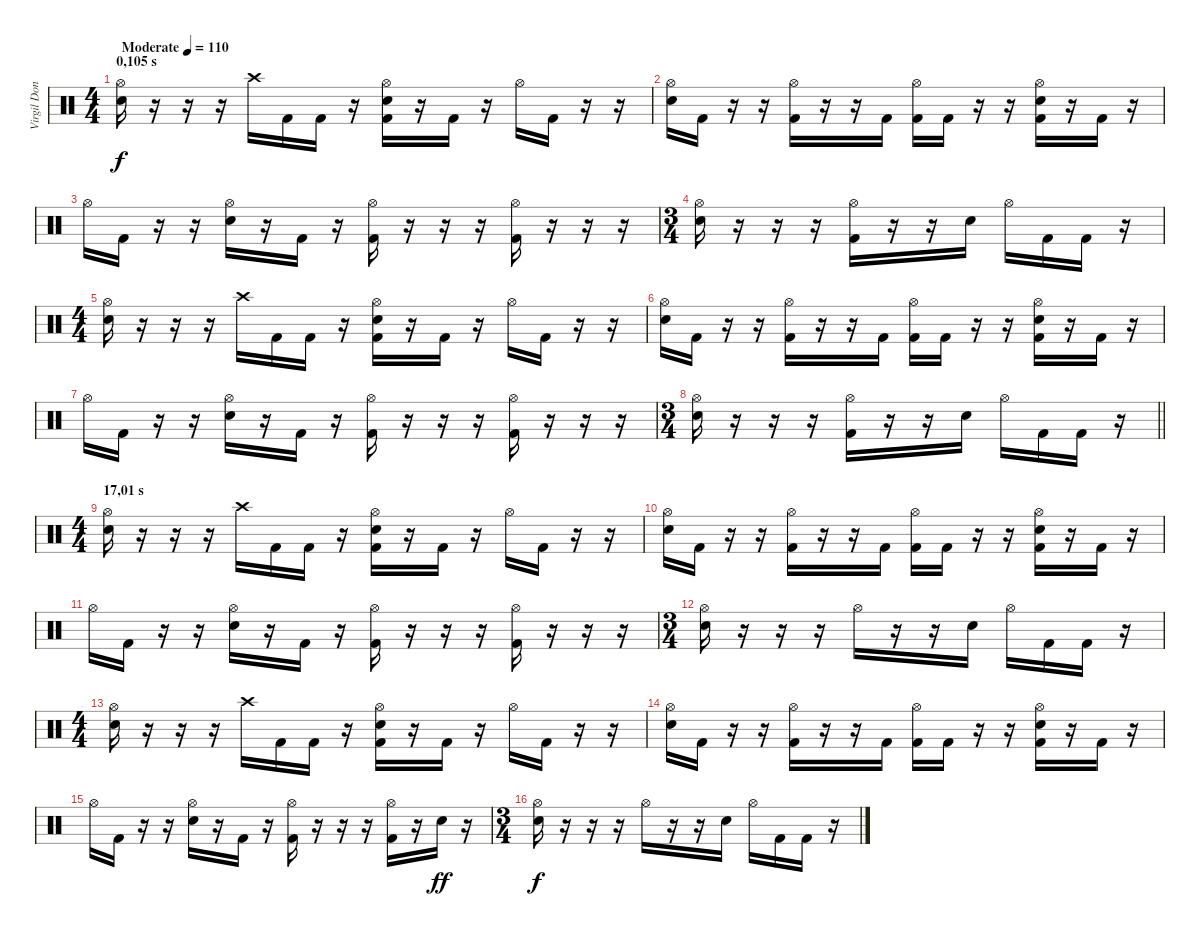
\track ("Virgil Donati" "Virgil Don") {instrument percussion}
\staff {score}
\articulation defaults
\ts (4 4)
\section ("" "0,105 s")
\tempo (110 "Moderate")
\clef neutral
\ks c
("Hi-Hat (open)" "Electric Snare (hit)").16{dy f} r.16 r.16 r.16 "Crash high (hit)".16 "Kick (hit) 2".16 "Kick (hit) 2".16 r.16 ("Hi-Hat (open)" "Electric Snare (hit)" "Kick (hit) 2").16 r.16 "Kick (hit) 2".16 r.16 "Hi-Hat (open)".16 "Kick (hit) 2".16 r.16 r.16 |
("Hi-Hat (open)" "Electric Snare (hit)").16 "Kick (hit) 2".16 r.16 r.16 ("Hi-Hat (open)" "Kick (hit) 2").16 r.16 r.16 "Kick (hit) 2".16 ("Hi-Hat (open)" "Kick (hit) 2").16 "Kick (hit) 2".16 r.16 r.16 ("Hi-Hat (open)" "Electric Snare (hit)" "Kick (hit) 2").16 r.16 "Kick (hit) 2".16 r.16 |
"Hi-Hat (open)".16 "Kick (hit) 2".16 r.16 r.16 ("Hi-Hat (open)" "Electric Snare (hit)").16 r.16 "Kick (hit) 2".16 r.16 ("Hi-Hat (open)" "Kick (hit) 2").16 r.16 r.16 r.16 ("Hi-Hat (open)" "Kick (hit) 2").16 r.16 r.16 r.16 |
\ts (3 4)
("Hi-Hat (open)" "Electric Snare (hit)").16 r.16 r.16 r.16 ("Hi-Hat (open)" "Kick (hit) 2").16 r.16 r.16 "Electric Snare (hit)".16 "Hi-Hat (open)".16 "Kick (hit) 2".16 "Kick (hit) 2".16 r.16 |
\ts (4 4)
("Hi-Hat (open)" "Electric Snare (hit)").16 r.16 r.16 r.16 "Crash high (hit)".16 "Kick (hit) 2".16 "Kick (hit) 2".16 r.16 ("Hi-Hat (open)" "Electric Snare (hit)" "Kick (hit) 2").16 r.16 "Kick (hit) 2".16 r.16 "Hi-Hat (open)".16 "Kick (hit) 2".16 r.16 r.16 |
("Hi-Hat (open)" "Electric Snare (hit)").16 "Kick (hit) 2".16 r.16 r.16 ("Hi-Hat (open)" "Kick (hit) 2").16 r.16 r.16 "Kick (hit) 2".16 ("Hi-Hat (open)" "Kick (hit) 2").16 "Kick (hit) 2".16 r.16 r.16 ("Hi-Hat (open)" "Electric Snare (hit)" "Kick (hit) 2").16 r.16 "Kick (hit) 2".16 r.16 |
"Hi-Hat (open)".16 "Kick (hit) 2".16 r.16 r.16 ("Hi-Hat (open)" "Electric Snare (hit)").16 r.16 "Kick (hit) 2".16 r.16 ("Hi-Hat (open)" "Kick (hit) 2").16 r.16 r.16 r.16 ("Hi-Hat (open)" "Kick (hit) 2").16 r.16 r.16 r.16 |
\ts (3 4)
\barLineRight lightlight
("Hi-Hat (open)" "Electric Snare (hit)").16 r.16 r.16 r.16 ("Hi-Hat (open)" "Kick (hit) 2").16 r.16 r.16 "Electric Snare (hit)".16 "Hi-Hat (open)".16 "Kick (hit) 2".16 "Kick (hit) 2".16 r.16 |
\ts (4 4)
\section ("" "17,01 s")
("Hi-Hat (open)" "Electric Snare (hit)").16{volume 12} r.16 r.16 r.16 "Crash high (hit)".16 "Kick (hit) 2".16 "Kick (hit) 2".16 r.16 ("Hi-Hat (open)" "Electric Snare (hit)" "Kick (hit) 2").16 r.16 "Kick (hit) 2".16 r.16 "Hi-Hat (open)".16 "Kick (hit) 2".16 r.16 r.16 |
("Hi-Hat (open)" "Electric Snare (hit)").16 "Kick (hit) 2".16 r.16 r.16 ("Hi-Hat (open)" "Kick (hit) 2").16 r.16 r.16 "Kick (hit) 2".16 ("Hi-Hat (open)" "Kick (hit) 2").16 "Kick (hit) 2".16 r.16 r.16 ("Hi-Hat (open)" "Electric Snare (hit)" "Kick (hit) 2").16 r.16 "Kick (hit) 2".16 r.16 |
"Hi-Hat (open)".16 "Kick (hit) 2".16 r.16 r.16 ("Hi-Hat (open)" "Electric Snare (hit)").16 r.16 "Kick (hit) 2".16 r.16 ("Hi-Hat (open)" "Kick (hit) 2").16 r.16 r.16 r.16 ("Hi-Hat (open)" "Kick (hit) 2").16 r.16 r.16 r.16 |
\ts (3 4)
("Hi-Hat (open)" "Electric Snare (hit)").16 r.16 r.16 r.16 "Hi-Hat (open)".16 r.16 r.16 "Electric Snare (hit)".16 "Hi-Hat (open)".16 "Kick (hit) 2".16 "Kick (hit) 2".16 r.16 |
\ts (4 4)
("Hi-Hat (open)" "Electric Snare (hit)").16 r.16 r.16 r.16 "Crash high (hit)".16 "Kick (hit) 2".16 "Kick (hit) 2".16 r.16 ("Hi-Hat (open)" "Electric Snare (hit)" "Kick (hit) 2").16 r.16 "Kick (hit) 2".16 r.16 "Hi-Hat (open)".16 "Kick (hit) 2".16 r.16 r.16 |
("Hi-Hat (open)" "Electric Snare (hit)").16 "Kick (hit) 2".16 r.16 r.16 ("Hi-Hat (open)" "Kick (hit) 2").16 r.16 r.16 "Kick (hit) 2".16 ("Hi-Hat (open)" "Kick (hit) 2").16 "Kick (hit) 2".16 r.16 r.16 ("Hi-Hat (open)" "Electric Snare (hit)" "Kick (hit) 2").16 r.16 "Kick (hit) 2".16 r.16 |
"Hi-Hat (open)".16 "Kick (hit) 2".16 r.16 r.16 ("Hi-Hat (open)" "Electric Snare (hit)").16 r.16 "Kick (hit) 2".16 r.16 ("Hi-Hat (open)" "Kick (hit) 2").16 r.16 r.16 r.16 ("Hi-Hat (open)" "Kick (hit) 2").16 r.16 "Electric Snare (hit)".16{dy ff} r.16 |
\ts (3 4)
("Hi-Hat (open)" "Electric Snare (hit)").16{dy f} r.16 r.16 r.16 "Hi-Hat (open)".16 r.16 r.16 "Electric Snare (hit)".16 "Hi-Hat (open)".16 "Kick (hit) 2".16 "Kick (hit) 2".16 r.16
